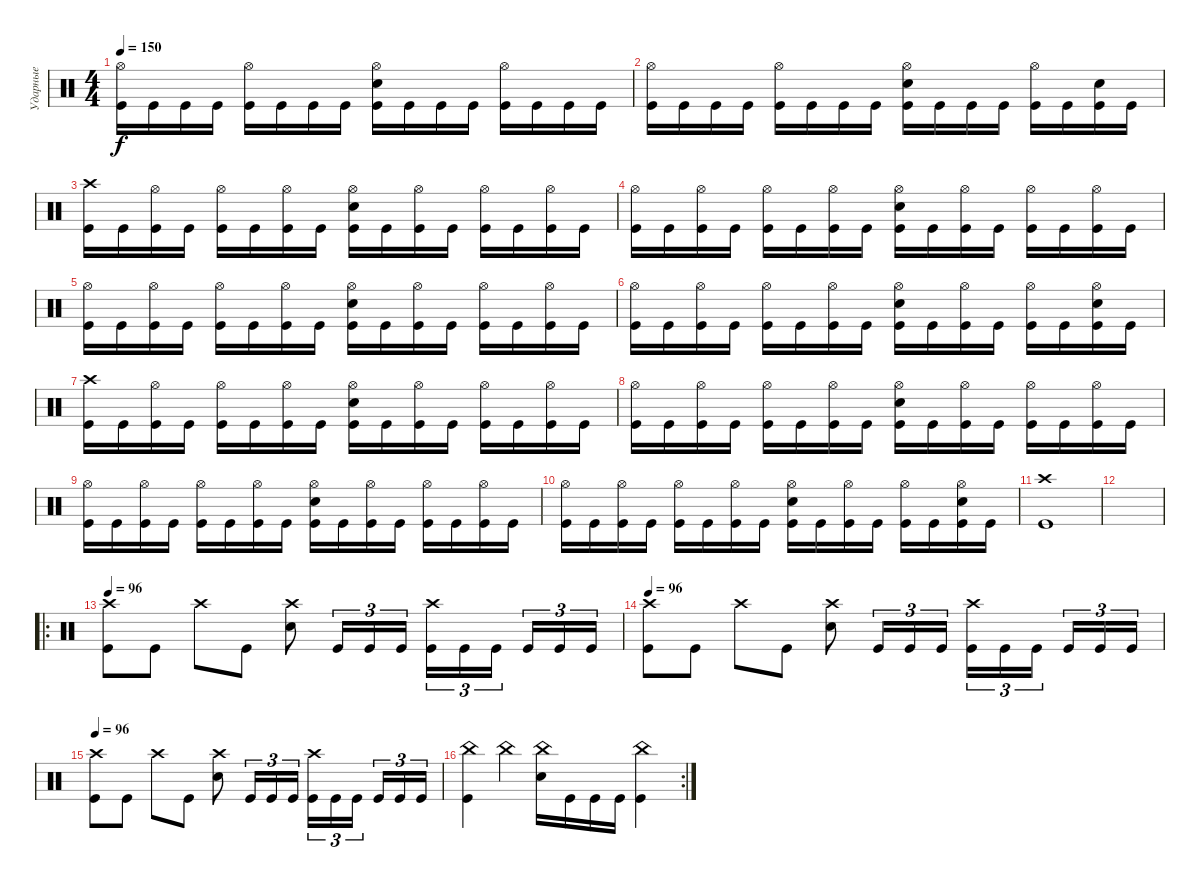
\track ("Ударные" "Ударные") {instrument percussion}
\staff {score}
\articulation defaults
\ts (4 4)
\tempo 150
\clef neutral
\ks c
("Hi-Hat (open)" "Kick (hit)").16{dy f} "Kick (hit)".16 "Kick (hit)".16 "Kick (hit)".16 ("Hi-Hat (open)" "Kick (hit)").16 "Kick (hit)".16 "Kick (hit)".16 "Kick (hit)".16 ("Hi-Hat (open)" "Snare (hit) 2" "Kick (hit)").16 "Kick (hit)".16 "Kick (hit)".16 "Kick (hit)".16 ("Hi-Hat (open)" "Kick (hit)").16 "Kick (hit)".16 "Kick (hit)".16 "Kick (hit)".16 |
("Hi-Hat (open)" "Kick (hit)").16 "Kick (hit)".16 "Kick (hit)".16 "Kick (hit)".16 ("Hi-Hat (open)" "Kick (hit)").16 "Kick (hit)".16 "Kick (hit)".16 "Kick (hit)".16 ("Hi-Hat (open)" "Snare (hit) 2" "Kick (hit)").16 "Kick (hit)".16 "Kick (hit)".16 "Kick (hit)".16 ("Hi-Hat (open)" "Kick (hit)").16 "Kick (hit)".16 ("Snare (hit) 2" "Kick (hit)").16 "Kick (hit)".16 |
("Crash high (hit)" "Kick (hit)").16 "Kick (hit)".16 ("Hi-Hat (open)" "Kick (hit)").16 "Kick (hit)".16 ("Hi-Hat (open)" "Kick (hit)").16 "Kick (hit)".16 ("Hi-Hat (open)" "Kick (hit)").16 "Kick (hit)".16 ("Hi-Hat (open)" "Snare (hit) 2" "Kick (hit)").16 "Kick (hit)".16 ("Hi-Hat (open)" "Kick (hit)").16 "Kick (hit)".16 ("Hi-Hat (open)" "Kick (hit)").16 "Kick (hit)".16 ("Hi-Hat (open)" "Kick (hit)").16 "Kick (hit)".16 |
("Hi-Hat (open)" "Kick (hit)").16 "Kick (hit)".16 ("Hi-Hat (open)" "Kick (hit)").16 "Kick (hit)".16 ("Hi-Hat (open)" "Kick (hit)").16 "Kick (hit)".16 ("Hi-Hat (open)" "Kick (hit)").16 "Kick (hit)".16 ("Hi-Hat (open)" "Snare (hit) 2" "Kick (hit)").16 "Kick (hit)".16 ("Hi-Hat (open)" "Kick (hit)").16 "Kick (hit)".16 ("Hi-Hat (open)" "Kick (hit)").16 "Kick (hit)".16 ("Hi-Hat (open)" "Kick (hit)").16 "Kick (hit)".16 |
("Hi-Hat (open)" "Kick (hit)").16 "Kick (hit)".16 ("Hi-Hat (open)" "Kick (hit)").16 "Kick (hit)".16 ("Hi-Hat (open)" "Kick (hit)").16 "Kick (hit)".16 ("Hi-Hat (open)" "Kick (hit)").16 "Kick (hit)".16 ("Hi-Hat (open)" "Snare (hit) 2" "Kick (hit)").16 "Kick (hit)".16 ("Hi-Hat (open)" "Kick (hit)").16 "Kick (hit)".16 ("Hi-Hat (open)" "Kick (hit)").16 "Kick (hit)".16 ("Hi-Hat (open)" "Kick (hit)").16 "Kick (hit)".16 |
("Hi-Hat (open)" "Kick (hit)").16 "Kick (hit)".16 ("Hi-Hat (open)" "Kick (hit)").16 "Kick (hit)".16 ("Hi-Hat (open)" "Kick (hit)").16 "Kick (hit)".16 ("Hi-Hat (open)" "Kick (hit)").16 "Kick (hit)".16 ("Hi-Hat (open)" "Snare (hit) 2" "Kick (hit)").16 "Kick (hit)".16 ("Hi-Hat (open)" "Kick (hit)").16 "Kick (hit)".16 ("Hi-Hat (open)" "Kick (hit)").16 "Kick (hit)".16 ("Hi-Hat (open)" "Snare (hit) 2" "Kick (hit)").16 "Kick (hit)".16 |
("Crash high (hit)" "Kick (hit)").16 "Kick (hit)".16 ("Hi-Hat (open)" "Kick (hit)").16 "Kick (hit)".16 ("Hi-Hat (open)" "Kick (hit)").16 "Kick (hit)".16 ("Hi-Hat (open)" "Kick (hit)").16 "Kick (hit)".16 ("Hi-Hat (open)" "Snare (hit) 2" "Kick (hit)").16 "Kick (hit)".16 ("Hi-Hat (open)" "Kick (hit)").16 "Kick (hit)".16 ("Hi-Hat (open)" "Kick (hit)").16 "Kick (hit)".16 ("Hi-Hat (open)" "Kick (hit)").16 "Kick (hit)".16 |
("Hi-Hat (open)" "Kick (hit)").16 "Kick (hit)".16 ("Hi-Hat (open)" "Kick (hit)").16 "Kick (hit)".16 ("Hi-Hat (open)" "Kick (hit)").16 "Kick (hit)".16 ("Hi-Hat (open)" "Kick (hit)").16 "Kick (hit)".16 ("Hi-Hat (open)" "Snare (hit) 2" "Kick (hit)").16 "Kick (hit)".16 ("Hi-Hat (open)" "Kick (hit)").16 "Kick (hit)".16 ("Hi-Hat (open)" "Kick (hit)").16 "Kick (hit)".16 ("Hi-Hat (open)" "Kick (hit)").16 "Kick (hit)".16 |
("Hi-Hat (open)" "Kick (hit)").16 "Kick (hit)".16 ("Hi-Hat (open)" "Kick (hit)").16 "Kick (hit)".16 ("Hi-Hat (open)" "Kick (hit)").16 "Kick (hit)".16 ("Hi-Hat (open)" "Kick (hit)").16 "Kick (hit)".16 ("Hi-Hat (open)" "Snare (hit) 2" "Kick (hit)").16 "Kick (hit)".16 ("Hi-Hat (open)" "Kick (hit)").16 "Kick (hit)".16 ("Hi-Hat (open)" "Kick (hit)").16 "Kick (hit)".16 ("Hi-Hat (open)" "Kick (hit)").16 "Kick (hit)".16 |
("Hi-Hat (open)" "Kick (hit)").16 "Kick (hit)".16 ("Hi-Hat (open)" "Kick (hit)").16 "Kick (hit)".16 ("Hi-Hat (open)" "Kick (hit)").16 "Kick (hit)".16 ("Hi-Hat (open)" "Kick (hit)").16 "Kick (hit)".16 ("Hi-Hat (open)" "Snare (hit) 2" "Kick (hit)").16 "Kick (hit)".16 ("Hi-Hat (open)" "Kick (hit)").16 "Kick (hit)".16 ("Hi-Hat (open)" "Kick (hit)").16 "Kick (hit)".16 ("Hi-Hat (open)" "Snare (hit) 2" "Kick (hit)").16 "Kick (hit)".16 |
("Crash high (hit)" "Kick (hit)").1 |
|
\ro
\tempo 96
("Crash high (hit)" "Kick (hit)").8 "Kick (hit)".8 "Crash high (hit)".8 "Kick (hit)".8 ("Crash high (hit)" "Snare (hit) 2").8 "Kick (hit)".16{tu (3 2)} "Kick (hit)".16{tu (3 2)} "Kick (hit)".16{tu (3 2)} ("Crash high (hit)" "Kick (hit)").16{tu (3 2)} "Kick (hit)".16{tu (3 2)} "Kick (hit)".16{tu (3 2) beam splitsecondary} "Kick (hit)".16{tu (3 2)} "Kick (hit)".16{tu (3 2)} "Kick (hit)".16{tu (3 2)} |
\tempo 96
("Crash high (hit)" "Kick (hit)").8 "Kick (hit)".8 "Crash high (hit)".8 "Kick (hit)".8 ("Crash high (hit)" "Snare (hit) 2").8 "Kick (hit)".16{tu (3 2)} "Kick (hit)".16{tu (3 2)} "Kick (hit)".16{tu (3 2)} ("Crash high (hit)" "Kick (hit)").16{tu (3 2)} "Kick (hit)".16{tu (3 2)} "Kick (hit)".16{tu (3 2) beam splitsecondary} "Kick (hit)".16{tu (3 2)} "Kick (hit)".16{tu (3 2)} "Kick (hit)".16{tu (3 2)} |
\tempo 96
("Crash high (hit)" "Kick (hit)").8 "Kick (hit)".8 "Crash high (hit)".8 "Kick (hit)".8 ("Crash high (hit)" "Snare (hit) 2").8 "Kick (hit)".16{tu (3 2)} "Kick (hit)".16{tu (3 2)} "Kick (hit)".16{tu (3 2)} ("Crash high (hit)" "Kick (hit)").16{tu (3 2)} "Kick (hit)".16{tu (3 2)} "Kick (hit)".16{tu (3 2) beam splitsecondary} "Kick (hit)".16{tu (3 2)} "Kick (hit)".16{tu (3 2)} "Kick (hit)".16{tu (3 2)} |
\rc 2
("China (hit)" "Kick (hit)").4 "China (hit)".4 ("China (hit)" "Snare (hit) 2").16 "Kick (hit)".16 "Kick (hit)".16 "Kick (hit)".16 ("China (hit)" "Kick (hit)").4
